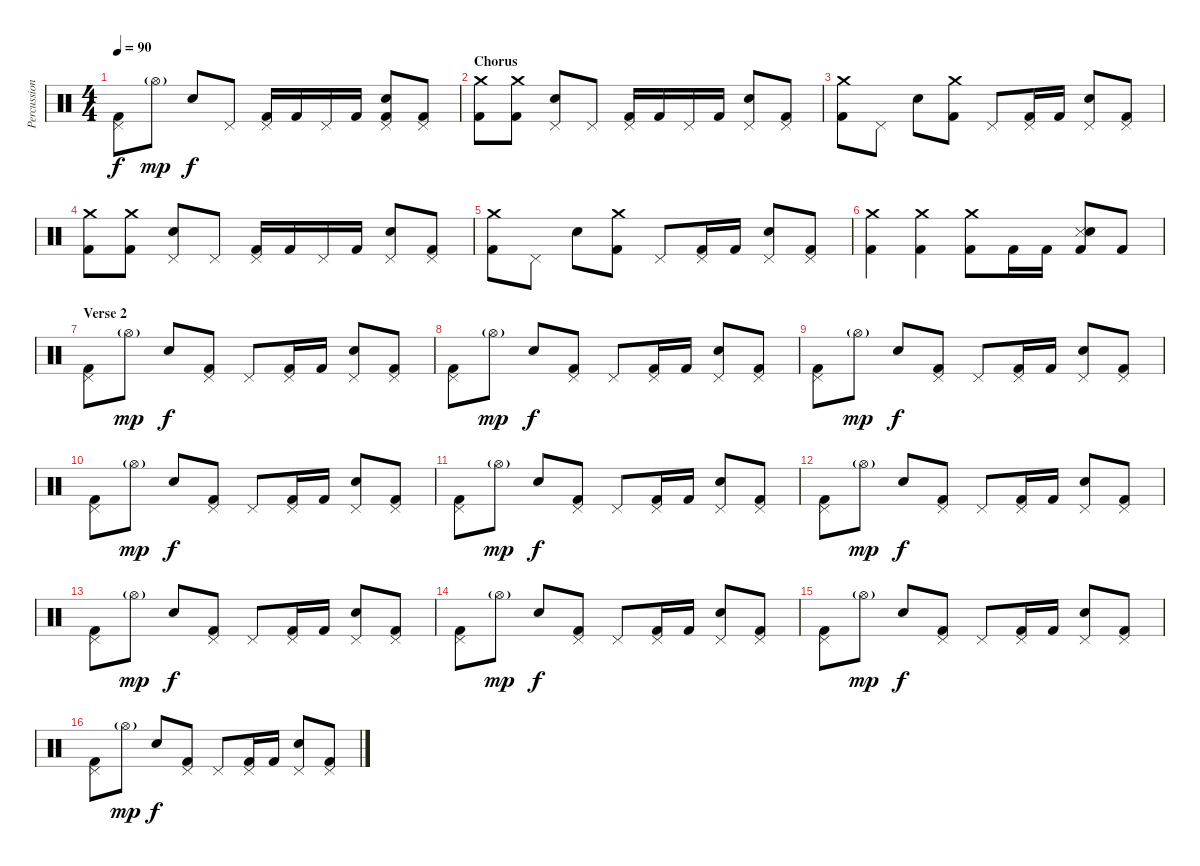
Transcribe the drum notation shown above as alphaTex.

\track ("Percussion" "Percussion") {instrument percussion}
\staff {score}
\articulation defaults
\ts (4 4)
\tempo 90
\clef neutral
\ks c
("Pedal Hi-Hat (hit)" "Kick (hit) 2").8{dy f} "Hi-Hat (open)"{g}.8{dy mp} "Electric Snare (hit)".8{dy f} "Pedal Hi-Hat (hit)".8 ("Pedal Hi-Hat (hit)" "Kick (hit) 2").16 "Kick (hit) 2".16 "Pedal Hi-Hat (hit)".16 "Kick (hit) 2".16 ("Pedal Hi-Hat (hit)" "Electric Snare (hit)" "Kick (hit) 2").8 ("Pedal Hi-Hat (hit)" "Kick (hit) 2").8 |
\section ("" "Chorus")
("Crash medium (hit)" "Kick (hit) 2").8 ("Crash medium (hit)" "Kick (hit) 2").8 ("Pedal Hi-Hat (hit)" "Electric Snare (hit)").8 "Pedal Hi-Hat (hit)".8 ("Pedal Hi-Hat (hit)" "Kick (hit) 2").16 "Kick (hit) 2".16 "Pedal Hi-Hat (hit)".16 "Kick (hit) 2".16 ("Pedal Hi-Hat (hit)" "Electric Snare (hit)").8 ("Pedal Hi-Hat (hit)" "Kick (hit) 2").8 |
("Crash medium (hit)" "Kick (hit) 2").8 "Pedal Hi-Hat (hit)".8 "Electric Snare (hit)".8 ("Crash medium (hit)" "Kick (hit) 2").8 "Pedal Hi-Hat (hit)".8 ("Pedal Hi-Hat (hit)" "Kick (hit) 2").16 "Kick (hit) 2".16 ("Pedal Hi-Hat (hit)" "Electric Snare (hit)").8 ("Pedal Hi-Hat (hit)" "Kick (hit) 2").8 |
("Crash medium (hit)" "Kick (hit) 2").8 ("Crash medium (hit)" "Kick (hit) 2").8 ("Pedal Hi-Hat (hit)" "Electric Snare (hit)").8 "Pedal Hi-Hat (hit)".8 ("Pedal Hi-Hat (hit)" "Kick (hit) 2").16 "Kick (hit) 2".16 "Pedal Hi-Hat (hit)".16 "Kick (hit) 2".16 ("Pedal Hi-Hat (hit)" "Electric Snare (hit)").8 ("Pedal Hi-Hat (hit)" "Kick (hit) 2").8 |
("Crash medium (hit)" "Kick (hit) 2").8 "Pedal Hi-Hat (hit)".8 "Electric Snare (hit)".8 ("Crash medium (hit)" "Kick (hit) 2").8 "Pedal Hi-Hat (hit)".8 ("Pedal Hi-Hat (hit)" "Kick (hit) 2").16 "Kick (hit) 2".16 ("Pedal Hi-Hat (hit)" "Electric Snare (hit)").8 ("Pedal Hi-Hat (hit)" "Kick (hit) 2").8 |
("Crash medium (hit)" "Kick (hit) 2").4 ("Crash medium (hit)" "Kick (hit) 2").4 ("Crash medium (hit)" "Kick (hit) 2").8 "Kick (hit) 2".16 "Kick (hit) 2".16 ("Snare (side stick) 3" "Electric Snare (hit)" "Kick (hit) 2").8 "Kick (hit) 2".8 |
\section ("" "Verse 2")
("Pedal Hi-Hat (hit)" "Kick (hit) 2").8 "Hi-Hat (open)"{g}.8{dy mp} "Electric Snare (hit)".8{dy f} ("Pedal Hi-Hat (hit)" "Kick (hit) 2").8 "Pedal Hi-Hat (hit)".8 ("Pedal Hi-Hat (hit)" "Kick (hit) 2").16 "Kick (hit) 2".16 ("Pedal Hi-Hat (hit)" "Electric Snare (hit)").8 ("Pedal Hi-Hat (hit)" "Kick (hit) 2").8 |
("Pedal Hi-Hat (hit)" "Kick (hit) 2").8 "Hi-Hat (open)"{g}.8{dy mp} "Electric Snare (hit)".8{dy f} ("Pedal Hi-Hat (hit)" "Kick (hit) 2").8 "Pedal Hi-Hat (hit)".8 ("Pedal Hi-Hat (hit)" "Kick (hit) 2").16 "Kick (hit) 2".16 ("Pedal Hi-Hat (hit)" "Electric Snare (hit)").8 ("Pedal Hi-Hat (hit)" "Kick (hit) 2").8 |
("Pedal Hi-Hat (hit)" "Kick (hit) 2").8 "Hi-Hat (open)"{g}.8{dy mp} "Electric Snare (hit)".8{dy f} ("Pedal Hi-Hat (hit)" "Kick (hit) 2").8 "Pedal Hi-Hat (hit)".8 ("Pedal Hi-Hat (hit)" "Kick (hit) 2").16 "Kick (hit) 2".16 ("Pedal Hi-Hat (hit)" "Electric Snare (hit)").8 ("Pedal Hi-Hat (hit)" "Kick (hit) 2").8 |
("Pedal Hi-Hat (hit)" "Kick (hit) 2").8 "Hi-Hat (open)"{g}.8{dy mp} "Electric Snare (hit)".8{dy f} ("Pedal Hi-Hat (hit)" "Kick (hit) 2").8 "Pedal Hi-Hat (hit)".8 ("Pedal Hi-Hat (hit)" "Kick (hit) 2").16 "Kick (hit) 2".16 ("Pedal Hi-Hat (hit)" "Electric Snare (hit)").8 ("Pedal Hi-Hat (hit)" "Kick (hit) 2").8 |
("Pedal Hi-Hat (hit)" "Kick (hit) 2").8 "Hi-Hat (open)"{g}.8{dy mp} "Electric Snare (hit)".8{dy f} ("Pedal Hi-Hat (hit)" "Kick (hit) 2").8 "Pedal Hi-Hat (hit)".8 ("Pedal Hi-Hat (hit)" "Kick (hit) 2").16 "Kick (hit) 2".16 ("Pedal Hi-Hat (hit)" "Electric Snare (hit)").8 ("Pedal Hi-Hat (hit)" "Kick (hit) 2").8 |
("Pedal Hi-Hat (hit)" "Kick (hit) 2").8 "Hi-Hat (open)"{g}.8{dy mp} "Electric Snare (hit)".8{dy f} ("Pedal Hi-Hat (hit)" "Kick (hit) 2").8 "Pedal Hi-Hat (hit)".8 ("Pedal Hi-Hat (hit)" "Kick (hit) 2").16 "Kick (hit) 2".16 ("Pedal Hi-Hat (hit)" "Electric Snare (hit)").8 ("Pedal Hi-Hat (hit)" "Kick (hit) 2").8 |
("Pedal Hi-Hat (hit)" "Kick (hit) 2").8 "Hi-Hat (open)"{g}.8{dy mp} "Electric Snare (hit)".8{dy f} ("Pedal Hi-Hat (hit)" "Kick (hit) 2").8 "Pedal Hi-Hat (hit)".8 ("Pedal Hi-Hat (hit)" "Kick (hit) 2").16 "Kick (hit) 2".16 ("Pedal Hi-Hat (hit)" "Electric Snare (hit)").8 ("Pedal Hi-Hat (hit)" "Kick (hit) 2").8 |
("Pedal Hi-Hat (hit)" "Kick (hit) 2").8 "Hi-Hat (open)"{g}.8{dy mp} "Electric Snare (hit)".8{dy f} ("Pedal Hi-Hat (hit)" "Kick (hit) 2").8 "Pedal Hi-Hat (hit)".8 ("Pedal Hi-Hat (hit)" "Kick (hit) 2").16 "Kick (hit) 2".16 ("Pedal Hi-Hat (hit)" "Electric Snare (hit)").8 ("Pedal Hi-Hat (hit)" "Kick (hit) 2").8 |
("Pedal Hi-Hat (hit)" "Kick (hit) 2").8 "Hi-Hat (open)"{g}.8{dy mp} "Electric Snare (hit)".8{dy f} ("Pedal Hi-Hat (hit)" "Kick (hit) 2").8 "Pedal Hi-Hat (hit)".8 ("Pedal Hi-Hat (hit)" "Kick (hit) 2").16 "Kick (hit) 2".16 ("Pedal Hi-Hat (hit)" "Electric Snare (hit)").8 ("Pedal Hi-Hat (hit)" "Kick (hit) 2").8 |
("Pedal Hi-Hat (hit)" "Kick (hit) 2").8 "Hi-Hat (open)"{g}.8{dy mp} "Electric Snare (hit)".8{dy f} ("Pedal Hi-Hat (hit)" "Kick (hit) 2").8 "Pedal Hi-Hat (hit)".8 ("Pedal Hi-Hat (hit)" "Kick (hit) 2").16 "Kick (hit) 2".16 ("Pedal Hi-Hat (hit)" "Electric Snare (hit)").8 ("Pedal Hi-Hat (hit)" "Kick (hit) 2").8
